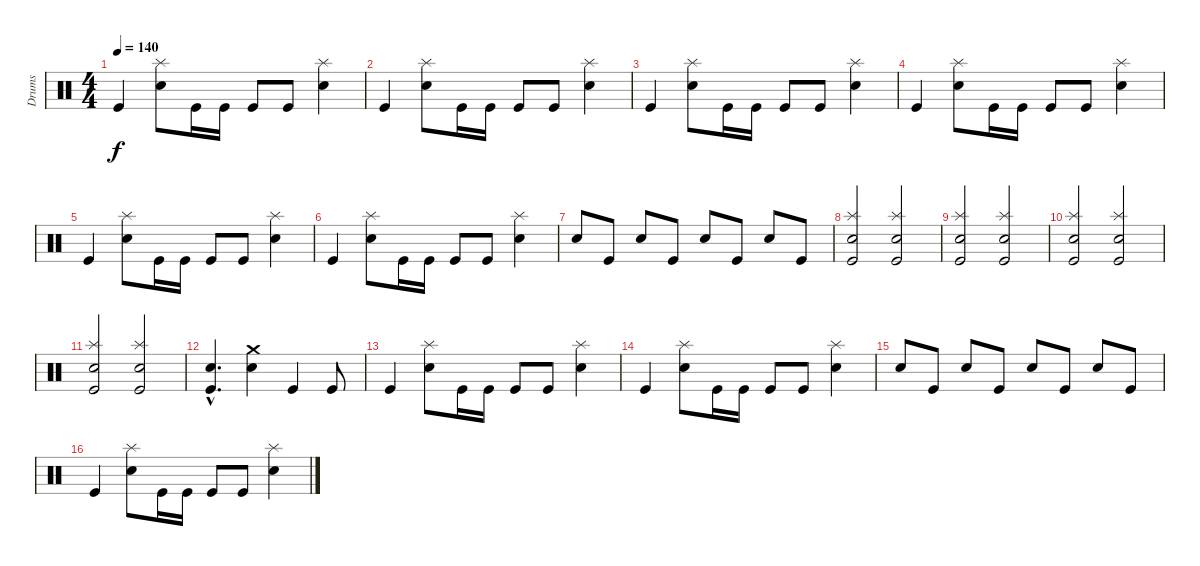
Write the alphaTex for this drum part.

\track ("Drums" "Drums") {instrument percussion}
\staff {score}
\articulation defaults
\ts (4 4)
\tempo 140
\clef neutral
\ks c "Kick (hit)".4{dy f}
("Splash (hit)" "Electric Snare (hit)").8 "Kick (hit)".16 "Kick (hit)".16 "Kick (hit)".8 "Kick (hit)".8 ("Splash (hit)" "Metronome (bell)").4 |
"Kick (hit)".4 ("Splash (hit)" "Electric Snare (hit)").8 "Kick (hit)".16 "Kick (hit)".16 "Kick (hit)".8 "Kick (hit)".8 ("Splash (hit)" "Metronome (bell)").4 |
"Kick (hit)".4 ("Splash (hit)" "Electric Snare (hit)").8 "Kick (hit)".16 "Kick (hit)".16 "Kick (hit)".8 "Kick (hit)".8 ("Splash (hit)" "Metronome (bell)").4 |
"Kick (hit)".4 ("Splash (hit)" "Electric Snare (hit)").8 "Kick (hit)".16 "Kick (hit)".16 "Kick (hit)".8 "Kick (hit)".8 ("Splash (hit)" "Metronome (bell)").4 |
"Kick (hit)".4 ("Splash (hit)" "Electric Snare (hit)").8 "Kick (hit)".16 "Kick (hit)".16 "Kick (hit)".8 "Kick (hit)".8 ("Splash (hit)" "Metronome (bell)").4 |
"Kick (hit)".4 ("Splash (hit)" "Electric Snare (hit)").8 "Kick (hit)".16 "Kick (hit)".16 "Kick (hit)".8 "Kick (hit)".8 ("Splash (hit)" "Metronome (bell)").4 |
"Electric Snare (hit)".8 "Kick (hit)".8 "Electric Snare (hit)".8 "Kick (hit)".8 "Electric Snare (hit)".8 "Kick (hit)".8 "Electric Snare (hit)".8 "Kick (hit)".8 |
("Kick (hit)" "Splash (hit)" "Electric Snare (hit)").2 ("Kick (hit)" "Splash (hit)" "Electric Snare (hit)").2 |
("Kick (hit)" "Splash (hit)" "Electric Snare (hit)").2 ("Kick (hit)" "Splash (hit)" "Electric Snare (hit)").2 |
("Kick (hit)" "Splash (hit)" "Electric Snare (hit)").2 ("Kick (hit)" "Splash (hit)" "Electric Snare (hit)").2 |
("Kick (hit)" "Splash (hit)" "Electric Snare (hit)").2 ("Kick (hit)" "Splash (hit)" "Electric Snare (hit)").2 |
("Electric Snare (hit)"{hac} "Kick (hit)"{hac}).4{d} ("Crash medium (hit)" "Electric Snare (hit)").4 "Kick (hit)".4 "Kick (hit)".8 |
"Kick (hit)".4 ("Splash (hit)" "Electric Snare (hit)").8 "Kick (hit)".16 "Kick (hit)".16 "Kick (hit)".8 "Kick (hit)".8 ("Splash (hit)" "Metronome (bell)").4 |
"Kick (hit)".4 ("Splash (hit)" "Electric Snare (hit)").8 "Kick (hit)".16 "Kick (hit)".16 "Kick (hit)".8 "Kick (hit)".8 ("Splash (hit)" "Metronome (bell)").4 |
"Electric Snare (hit)".8 "Kick (hit)".8 "Electric Snare (hit)".8 "Kick (hit)".8 "Electric Snare (hit)".8 "Kick (hit)".8 "Electric Snare (hit)".8 "Kick (hit)".8 |
"Kick (hit)".4 ("Splash (hit)" "Electric Snare (hit)").8 "Kick (hit)".16 "Kick (hit)".16 "Kick (hit)".8 "Kick (hit)".8 ("Splash (hit)" "Metronome (bell)").4
